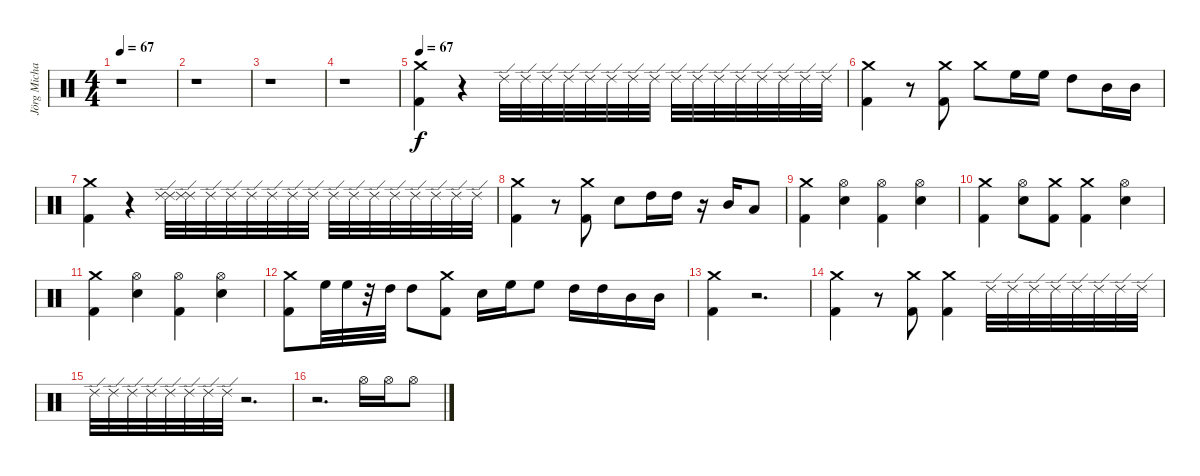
\track ("Jörg Michael" "Jörg Micha") {instrument percussion}
\staff {score}
\articulation defaults
\ts (4 4)
\tempo 67
\clef neutral
\ks c
r.1{dy f} |
r.1 |
r.1 |
r.1 |
\tempo 67
("Crash medium (hit)" "Kick (hit) 2").4 r.4 "Ride (edge) 2".32{volume 2} "Ride (edge) 2".32{volume 3} "Ride (edge) 2".32{volume 4} "Ride (edge) 2".32{volume 5} "Ride (edge) 2".32{volume 6} "Ride (edge) 2".32{volume 7} "Ride (edge) 2".32{volume 7} "Ride (edge) 2".32{volume 9} "Ride (edge) 2".32{volume 9} "Ride (edge) 2".32{volume 11} "Ride (edge) 2".32{volume 11} "Ride (edge) 2".32{volume 12} "Ride (edge) 2".32{volume 13} "Ride (edge) 2".32{volume 14} "Ride (edge) 2".32{volume 15} "Ride (edge) 2".32{volume 16} |
("Crash medium (hit)" "Kick (hit) 2").4 r.8 ("Crash medium (hit)" "Kick (hit) 2").8 "Crash medium (hit)".8 "High Floor Tom (hit)".16 "High Floor Tom (hit)".16 "High Tom (hit)".8 "Mid Tom (hit)".16 "Mid Tom (hit)".16 |
("Kick (hit) 2" "Crash medium (hit)").4 r.4 ("Ride (edge) 2" "Ride (edge) 2").32{volume 0} ("Ride (edge) 2" "Ride (edge) 2").32{volume 2} "Ride (edge) 2".32{volume 2} "Ride (edge) 2".32{volume 4} "Ride (edge) 2".32{volume 4} "Ride (edge) 2".32{volume 6} "Ride (edge) 2".32{volume 6} "Ride (edge) 2".32{volume 8} "Ride (edge) 2".32{volume 8} "Ride (edge) 2".32{volume 10} "Ride (edge) 2".32{volume 10} "Ride (edge) 2".32{volume 12} "Ride (edge) 2".32{volume 12} "Ride (edge) 2".32{volume 14} "Ride (edge) 2".32{volume 14} "Ride (edge) 2".32{volume 16} |
("Kick (hit) 2" "Crash medium (hit)").4 r.8 ("Crash medium (hit)" "Kick (hit) 2").8 "Snare (hit) 2".8 "High Tom (hit)".16 "High Tom (hit)".16 r.16 "Mid Tom (hit)".16 "Low Tom (hit)".8 |
("Kick (hit) 2" "Crash medium (hit)").4 ("Snare (hit) 2" "Hi-Hat (open)").4 ("Kick (hit) 2" "Hi-Hat (open)").4 ("Snare (hit) 2" "Hi-Hat (open)").4 |
("Kick (hit) 2" "Crash medium (hit)").4 ("Hi-Hat (open)" "Snare (hit) 2").8 ("Crash medium (hit)" "Kick (hit) 2").8 ("Crash medium (hit)" "Kick (hit) 2").4 ("Hi-Hat (open)" "Snare (hit) 2").4 |
("Kick (hit) 2" "Crash medium (hit)").4 ("Snare (hit) 2" "Hi-Hat (open)").4 ("Kick (hit) 2" "Hi-Hat (open)").4 ("Snare (hit) 2" "Hi-Hat (open)").4 |
("Kick (hit) 2" "Crash medium (hit)").8 "High Floor Tom (hit)".32 "High Floor Tom (hit)".32 r.32 "High Tom (hit)".32 "High Tom (hit)".8 ("Kick (hit) 2" "Crash medium (hit)").8 "Snare (hit) 2".16 "High Floor Tom (hit)".16 "High Floor Tom (hit)".8 "High Tom (hit)".16 "High Tom (hit)".16 "Mid Tom (hit)".16 "Mid Tom (hit)".16 |
("Crash medium (hit)" "Kick (hit) 2").4 r.2{d} |
("Crash medium (hit)" "Kick (hit) 2").4 r.8 ("Crash medium (hit)" "Kick (hit) 2").8 ("Crash medium (hit)" "Kick (hit) 2").4 "Ride (edge) 2".32 "Ride (edge) 2".32 "Ride (edge) 2".32 "Ride (edge) 2".32 "Ride (edge) 2".32 "Ride (edge) 2".32 "Ride (edge) 2".32 "Ride (edge) 2".32 |
"Ride (edge) 2".32 "Ride (edge) 2".32 "Ride (edge) 2".32 "Ride (edge) 2".32 "Ride (edge) 2".32 "Ride (edge) 2".32 "Ride (edge) 2".32 "Ride (edge) 2".32 r.2{d} |
r.2{d} "Hi-Hat (open)".16 "Hi-Hat (open)".16 "Hi-Hat (open)".8
